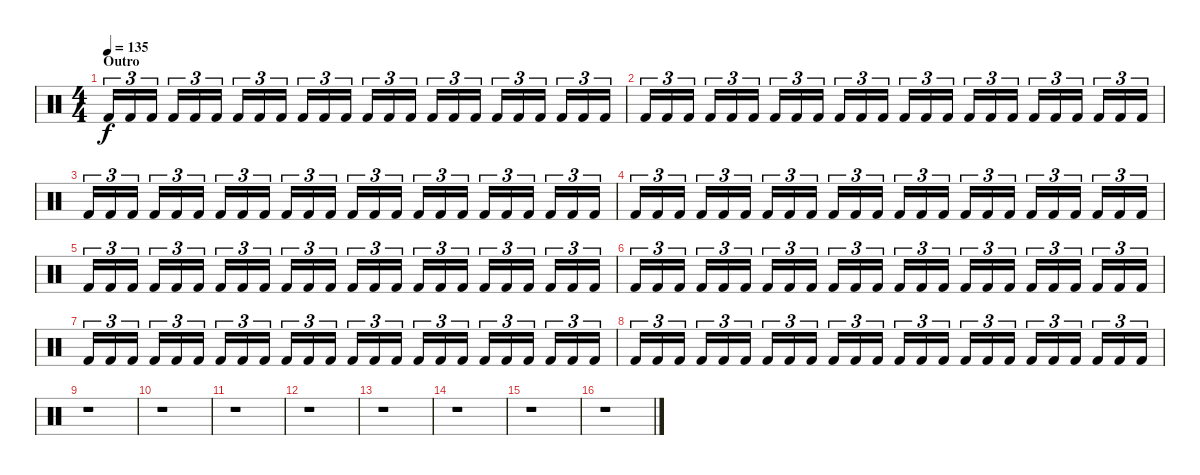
\track "" {instrument percussion}
\staff {score}
\articulation defaults
\ts (4 4)
\section ("" "Outro")
\tempo 135
\clef neutral
\ks c "Kick (hit) 2".16{tu (3 2) dy f} "Kick (hit) 2".16{tu (3 2)} "Kick (hit) 2".16{tu (3 2) beam splitsecondary} "Kick (hit) 2".16{tu (3 2)} "Kick (hit) 2".16{tu (3 2)} "Kick (hit) 2".16{tu (3 2)} "Kick (hit) 2".16{tu (3 2)} "Kick (hit) 2".16{tu (3 2)} "Kick (hit) 2".16{tu (3 2) beam splitsecondary} "Kick (hit) 2".16{tu (3 2)} "Kick (hit) 2".16{tu (3 2)} "Kick (hit) 2".16{tu (3 2)} "Kick (hit) 2".16{tu (3 2)} "Kick (hit) 2".16{tu (3 2)} "Kick (hit) 2".16{tu (3 2) beam splitsecondary} "Kick (hit) 2".16{tu (3 2)} "Kick (hit) 2".16{tu (3 2)} "Kick (hit) 2".16{tu (3 2)} "Kick (hit) 2".16{tu (3 2)} "Kick (hit) 2".16{tu (3 2)} "Kick (hit) 2".16{tu (3 2) beam splitsecondary} "Kick (hit) 2".16{tu (3 2)} "Kick (hit) 2".16{tu (3 2)} "Kick (hit) 2".16{tu (3 2)}
|
"Kick (hit) 2".16{tu (3 2)} "Kick (hit) 2".16{tu (3 2)} "Kick (hit) 2".16{tu (3 2) beam splitsecondary} "Kick (hit) 2".16{tu (3 2)} "Kick (hit) 2".16{tu (3 2)} "Kick (hit) 2".16{tu (3 2)} "Kick (hit) 2".16{tu (3 2)} "Kick (hit) 2".16{tu (3 2)} "Kick (hit) 2".16{tu (3 2) beam splitsecondary} "Kick (hit) 2".16{tu (3 2)} "Kick (hit) 2".16{tu (3 2)} "Kick (hit) 2".16{tu (3 2)} "Kick (hit) 2".16{tu (3 2)} "Kick (hit) 2".16{tu (3 2)} "Kick (hit) 2".16{tu (3 2) beam splitsecondary} "Kick (hit) 2".16{tu (3 2)} "Kick (hit) 2".16{tu (3 2)} "Kick (hit) 2".16{tu (3 2)} "Kick (hit) 2".16{tu (3 2)} "Kick (hit) 2".16{tu (3 2)} "Kick (hit) 2".16{tu (3 2) beam splitsecondary} "Kick (hit) 2".16{tu (3 2)} "Kick (hit) 2".16{tu (3 2)} "Kick (hit) 2".16{tu (3 2)} |
"Kick (hit) 2".16{tu (3 2)} "Kick (hit) 2".16{tu (3 2)} "Kick (hit) 2".16{tu (3 2) beam splitsecondary} "Kick (hit) 2".16{tu (3 2)} "Kick (hit) 2".16{tu (3 2)} "Kick (hit) 2".16{tu (3 2)} "Kick (hit) 2".16{tu (3 2)} "Kick (hit) 2".16{tu (3 2)} "Kick (hit) 2".16{tu (3 2) beam splitsecondary} "Kick (hit) 2".16{tu (3 2)} "Kick (hit) 2".16{tu (3 2)} "Kick (hit) 2".16{tu (3 2)} "Kick (hit) 2".16{tu (3 2)} "Kick (hit) 2".16{tu (3 2)} "Kick (hit) 2".16{tu (3 2) beam splitsecondary} "Kick (hit) 2".16{tu (3 2)} "Kick (hit) 2".16{tu (3 2)} "Kick (hit) 2".16{tu (3 2)} "Kick (hit) 2".16{tu (3 2)} "Kick (hit) 2".16{tu (3 2)} "Kick (hit) 2".16{tu (3 2) beam splitsecondary} "Kick (hit) 2".16{tu (3 2)} "Kick (hit) 2".16{tu (3 2)} "Kick (hit) 2".16{tu (3 2)} |
"Kick (hit) 2".16{tu (3 2)} "Kick (hit) 2".16{tu (3 2)} "Kick (hit) 2".16{tu (3 2) beam splitsecondary} "Kick (hit) 2".16{tu (3 2)} "Kick (hit) 2".16{tu (3 2)} "Kick (hit) 2".16{tu (3 2)} "Kick (hit) 2".16{tu (3 2)} "Kick (hit) 2".16{tu (3 2)} "Kick (hit) 2".16{tu (3 2) beam splitsecondary} "Kick (hit) 2".16{tu (3 2)} "Kick (hit) 2".16{tu (3 2)} "Kick (hit) 2".16{tu (3 2)} "Kick (hit) 2".16{tu (3 2)} "Kick (hit) 2".16{tu (3 2)} "Kick (hit) 2".16{tu (3 2) beam splitsecondary} "Kick (hit) 2".16{tu (3 2)} "Kick (hit) 2".16{tu (3 2)} "Kick (hit) 2".16{tu (3 2)} "Kick (hit) 2".16{tu (3 2)} "Kick (hit) 2".16{tu (3 2)} "Kick (hit) 2".16{tu (3 2) beam splitsecondary} "Kick (hit) 2".16{tu (3 2)} "Kick (hit) 2".16{tu (3 2)} "Kick (hit) 2".16{tu (3 2)} |
"Kick (hit) 2".16{tu (3 2)} "Kick (hit) 2".16{tu (3 2)} "Kick (hit) 2".16{tu (3 2) beam splitsecondary} "Kick (hit) 2".16{tu (3 2)} "Kick (hit) 2".16{tu (3 2)} "Kick (hit) 2".16{tu (3 2)} "Kick (hit) 2".16{tu (3 2)} "Kick (hit) 2".16{tu (3 2)} "Kick (hit) 2".16{tu (3 2) beam splitsecondary} "Kick (hit) 2".16{tu (3 2)} "Kick (hit) 2".16{tu (3 2)} "Kick (hit) 2".16{tu (3 2)} "Kick (hit) 2".16{tu (3 2)} "Kick (hit) 2".16{tu (3 2)} "Kick (hit) 2".16{tu (3 2) beam splitsecondary} "Kick (hit) 2".16{tu (3 2)} "Kick (hit) 2".16{tu (3 2)} "Kick (hit) 2".16{tu (3 2)} "Kick (hit) 2".16{tu (3 2)} "Kick (hit) 2".16{tu (3 2)} "Kick (hit) 2".16{tu (3 2) beam splitsecondary} "Kick (hit) 2".16{tu (3 2)} "Kick (hit) 2".16{tu (3 2)} "Kick (hit) 2".16{tu (3 2)} |
"Kick (hit) 2".16{tu (3 2)} "Kick (hit) 2".16{tu (3 2)} "Kick (hit) 2".16{tu (3 2) beam splitsecondary} "Kick (hit) 2".16{tu (3 2)} "Kick (hit) 2".16{tu (3 2)} "Kick (hit) 2".16{tu (3 2)} "Kick (hit) 2".16{tu (3 2)} "Kick (hit) 2".16{tu (3 2)} "Kick (hit) 2".16{tu (3 2) beam splitsecondary} "Kick (hit) 2".16{tu (3 2)} "Kick (hit) 2".16{tu (3 2)} "Kick (hit) 2".16{tu (3 2)} "Kick (hit) 2".16{tu (3 2)} "Kick (hit) 2".16{tu (3 2)} "Kick (hit) 2".16{tu (3 2) beam splitsecondary} "Kick (hit) 2".16{tu (3 2)} "Kick (hit) 2".16{tu (3 2)} "Kick (hit) 2".16{tu (3 2)} "Kick (hit) 2".16{tu (3 2)} "Kick (hit) 2".16{tu (3 2)} "Kick (hit) 2".16{tu (3 2) beam splitsecondary} "Kick (hit) 2".16{tu (3 2)} "Kick (hit) 2".16{tu (3 2)} "Kick (hit) 2".16{tu (3 2)} |
"Kick (hit) 2".16{tu (3 2)} "Kick (hit) 2".16{tu (3 2)} "Kick (hit) 2".16{tu (3 2) beam splitsecondary} "Kick (hit) 2".16{tu (3 2)} "Kick (hit) 2".16{tu (3 2)} "Kick (hit) 2".16{tu (3 2)} "Kick (hit) 2".16{tu (3 2)} "Kick (hit) 2".16{tu (3 2)} "Kick (hit) 2".16{tu (3 2) beam splitsecondary} "Kick (hit) 2".16{tu (3 2)} "Kick (hit) 2".16{tu (3 2)} "Kick (hit) 2".16{tu (3 2)} "Kick (hit) 2".16{tu (3 2)} "Kick (hit) 2".16{tu (3 2)} "Kick (hit) 2".16{tu (3 2) beam splitsecondary} "Kick (hit) 2".16{tu (3 2)} "Kick (hit) 2".16{tu (3 2)} "Kick (hit) 2".16{tu (3 2)} "Kick (hit) 2".16{tu (3 2)} "Kick (hit) 2".16{tu (3 2)} "Kick (hit) 2".16{tu (3 2) beam splitsecondary} "Kick (hit) 2".16{tu (3 2)} "Kick (hit) 2".16{tu (3 2)} "Kick (hit) 2".16{tu (3 2)} |
"Kick (hit) 2".16{tu (3 2)} "Kick (hit) 2".16{tu (3 2)} "Kick (hit) 2".16{tu (3 2) beam splitsecondary} "Kick (hit) 2".16{tu (3 2)} "Kick (hit) 2".16{tu (3 2)} "Kick (hit) 2".16{tu (3 2)} "Kick (hit) 2".16{tu (3 2)} "Kick (hit) 2".16{tu (3 2)} "Kick (hit) 2".16{tu (3 2) beam splitsecondary} "Kick (hit) 2".16{tu (3 2)} "Kick (hit) 2".16{tu (3 2)} "Kick (hit) 2".16{tu (3 2)} "Kick (hit) 2".16{tu (3 2)} "Kick (hit) 2".16{tu (3 2)} "Kick (hit) 2".16{tu (3 2) beam splitsecondary} "Kick (hit) 2".16{tu (3 2)} "Kick (hit) 2".16{tu (3 2)} "Kick (hit) 2".16{tu (3 2)} "Kick (hit) 2".16{tu (3 2)} "Kick (hit) 2".16{tu (3 2)} "Kick (hit) 2".16{tu (3 2) beam splitsecondary} "Kick (hit) 2".16{tu (3 2)} "Kick (hit) 2".16{tu (3 2)} "Kick (hit) 2".16{tu (3 2)} |
r.1 |
r.1 |
r.1 |
r.1 |
r.1 |
r.1 |
r.1 |
r.1
